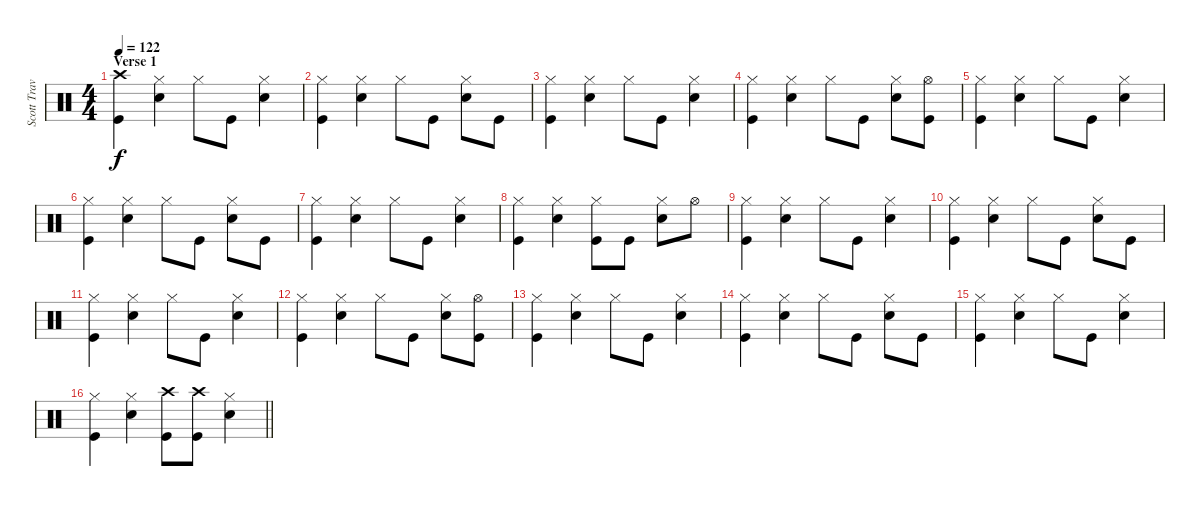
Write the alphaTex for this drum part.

\track ("Scott Travis" "Scott Trav") {instrument percussion}
\staff {score}
\articulation defaults
\ts (4 4)
\section ("" "Verse 1")
\tempo 122
\clef neutral
\ks c
("Crash high (hit)" "Kick (hit)").4{dy f} ("Hi-Hat (closed)" "Snare (hit) 2").4 "Hi-Hat (closed)".8 "Kick (hit)".8 ("Hi-Hat (closed)" "Snare (hit) 2").4 |
("Hi-Hat (closed)" "Kick (hit)").4 ("Hi-Hat (closed)" "Snare (hit) 2").4 "Hi-Hat (closed)".8 "Kick (hit)".8 ("Hi-Hat (closed)" "Snare (hit) 2").8 "Kick (hit)".8 |
("Hi-Hat (closed)" "Kick (hit)").4 ("Hi-Hat (closed)" "Snare (hit) 2").4 "Hi-Hat (closed)".8 "Kick (hit)".8 ("Hi-Hat (closed)" "Snare (hit) 2").4 |
("Hi-Hat (closed)" "Kick (hit)").4 ("Hi-Hat (closed)" "Snare (hit) 2").4 "Hi-Hat (closed)".8 "Kick (hit)".8 ("Hi-Hat (closed)" "Snare (hit) 2").8 ("Hi-Hat (open)" "Kick (hit)").8 |
("Hi-Hat (closed)" "Kick (hit)").4 ("Hi-Hat (closed)" "Snare (hit) 2").4 "Hi-Hat (closed)".8 "Kick (hit)".8 ("Hi-Hat (closed)" "Snare (hit) 2").4 |
("Hi-Hat (closed)" "Kick (hit)").4 ("Hi-Hat (closed)" "Snare (hit) 2").4 "Hi-Hat (closed)".8 "Kick (hit)".8 ("Hi-Hat (closed)" "Snare (hit) 2").8 "Kick (hit)".8 |
("Hi-Hat (closed)" "Kick (hit)").4 ("Hi-Hat (closed)" "Snare (hit) 2").4 "Hi-Hat (closed)".8 "Kick (hit)".8 ("Hi-Hat (closed)" "Snare (hit) 2").4 |
("Hi-Hat (closed)" "Kick (hit)").4 ("Hi-Hat (closed)" "Snare (hit) 2").4 ("Hi-Hat (closed)" "Kick (hit)").8 "Kick (hit)".8 ("Hi-Hat (closed)" "Snare (hit) 2").8 "Hi-Hat (open)".8 |
("Hi-Hat (closed)" "Kick (hit)").4 ("Hi-Hat (closed)" "Snare (hit) 2").4 "Hi-Hat (closed)".8 "Kick (hit)".8 ("Hi-Hat (closed)" "Snare (hit) 2").4 |
("Hi-Hat (closed)" "Kick (hit)").4 ("Hi-Hat (closed)" "Snare (hit) 2").4 "Hi-Hat (closed)".8 "Kick (hit)".8 ("Hi-Hat (closed)" "Snare (hit) 2").8 "Kick (hit)".8 |
("Hi-Hat (closed)" "Kick (hit)").4 ("Hi-Hat (closed)" "Snare (hit) 2").4 "Hi-Hat (closed)".8 "Kick (hit)".8 ("Hi-Hat (closed)" "Snare (hit) 2").4 |
("Hi-Hat (closed)" "Kick (hit)").4 ("Hi-Hat (closed)" "Snare (hit) 2").4 "Hi-Hat (closed)".8 "Kick (hit)".8 ("Hi-Hat (closed)" "Snare (hit) 2").8 ("Hi-Hat (open)" "Kick (hit)").8 |
("Hi-Hat (closed)" "Kick (hit)").4 ("Hi-Hat (closed)" "Snare (hit) 2").4 "Hi-Hat (closed)".8 "Kick (hit)".8 ("Hi-Hat (closed)" "Snare (hit) 2").4 |
("Hi-Hat (closed)" "Kick (hit)").4 ("Hi-Hat (closed)" "Snare (hit) 2").4 "Hi-Hat (closed)".8 "Kick (hit)".8 ("Hi-Hat (closed)" "Snare (hit) 2").8 "Kick (hit)".8 |
("Hi-Hat (closed)" "Kick (hit)").4 ("Hi-Hat (closed)" "Snare (hit) 2").4 "Hi-Hat (closed)".8 "Kick (hit)".8 ("Hi-Hat (closed)" "Snare (hit) 2").4 |
\barLineRight lightlight
("Hi-Hat (closed)" "Kick (hit)").4 ("Hi-Hat (closed)" "Snare (hit) 2").4 ("Crash high (hit)" "Kick (hit)").8 ("Crash high (hit)" "Kick (hit)").8 ("Hi-Hat (closed)" "Snare (hit) 2").4
